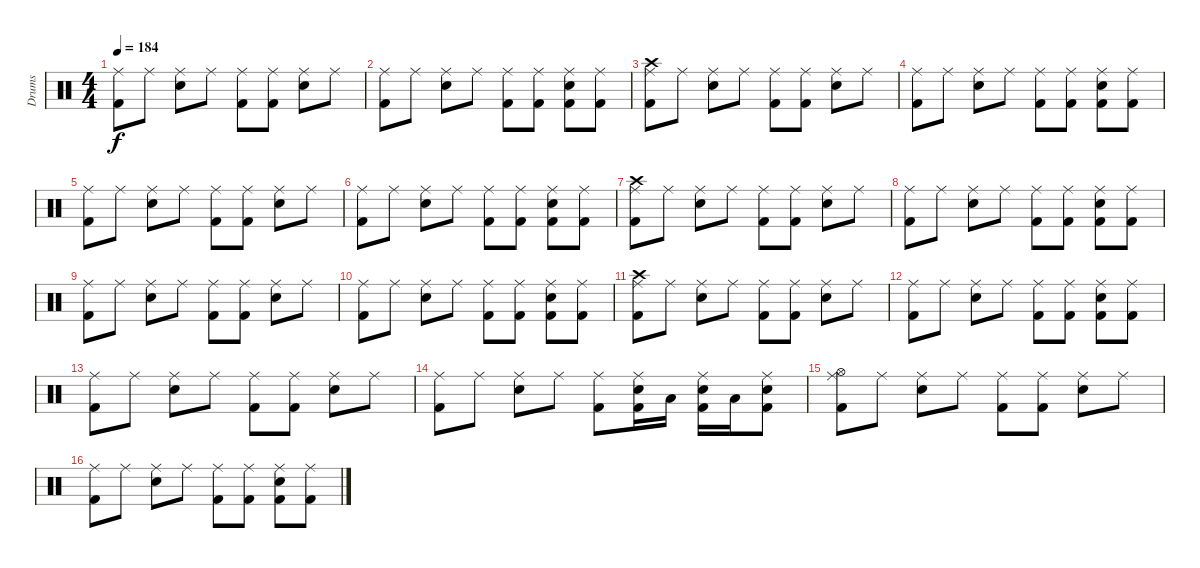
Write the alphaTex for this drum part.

\track ("Drums" "Drums") {instrument percussion}
\staff {score}
\articulation defaults
\ts (4 4)
\tempo 184
\clef neutral
\ks c
("Ride (middle)" "Kick (hit) 2").8{dy f} "Ride (middle)".8 ("Ride (middle)" "Electric Snare (hit)").8 "Ride (middle)".8 ("Ride (middle)" "Kick (hit) 2").8 ("Ride (middle)" "Kick (hit) 2").8 ("Ride (middle)" "Electric Snare (hit)").8 "Ride (middle)".8 |
("Ride (middle)" "Kick (hit) 2").8 "Ride (middle)".8 ("Ride (middle)" "Electric Snare (hit)").8 "Ride (middle)".8 ("Ride (middle)" "Kick (hit) 2").8 ("Ride (middle)" "Kick (hit) 2").8 ("Ride (middle)" "Electric Snare (hit)" "Kick (hit) 2").8 ("Ride (middle)" "Kick (hit) 2").8 |
("Ride (middle)" "Crash high (hit)" "Kick (hit) 2").8 "Ride (middle)".8 ("Ride (middle)" "Electric Snare (hit)").8 "Ride (middle)".8 ("Ride (middle)" "Kick (hit) 2").8 ("Ride (middle)" "Kick (hit) 2").8 ("Ride (middle)" "Electric Snare (hit)").8 "Ride (middle)".8 |
("Ride (middle)" "Kick (hit) 2").8 "Ride (middle)".8 ("Ride (middle)" "Electric Snare (hit)").8 "Ride (middle)".8 ("Ride (middle)" "Kick (hit) 2").8 ("Ride (middle)" "Kick (hit) 2").8 ("Ride (middle)" "Electric Snare (hit)" "Kick (hit) 2").8 ("Ride (middle)" "Kick (hit) 2").8 |
("Ride (middle)" "Kick (hit) 2").8 "Ride (middle)".8 ("Ride (middle)" "Electric Snare (hit)").8 "Ride (middle)".8 ("Ride (middle)" "Kick (hit) 2").8 ("Ride (middle)" "Kick (hit) 2").8 ("Ride (middle)" "Electric Snare (hit)").8 "Ride (middle)".8 |
("Ride (middle)" "Kick (hit) 2").8 "Ride (middle)".8 ("Ride (middle)" "Electric Snare (hit)").8 "Ride (middle)".8 ("Ride (middle)" "Kick (hit) 2").8 ("Ride (middle)" "Kick (hit) 2").8 ("Ride (middle)" "Electric Snare (hit)" "Kick (hit) 2").8 ("Ride (middle)" "Kick (hit) 2").8 |
("Ride (middle)" "Crash high (hit)" "Kick (hit) 2").8 "Ride (middle)".8 ("Ride (middle)" "Electric Snare (hit)").8 "Ride (middle)".8 ("Ride (middle)" "Kick (hit) 2").8 ("Ride (middle)" "Kick (hit) 2").8 ("Ride (middle)" "Electric Snare (hit)").8 "Ride (middle)".8 |
("Ride (middle)" "Kick (hit) 2").8 "Ride (middle)".8 ("Ride (middle)" "Electric Snare (hit)").8 "Ride (middle)".8 ("Ride (middle)" "Kick (hit) 2").8 ("Ride (middle)" "Kick (hit) 2").8 ("Ride (middle)" "Electric Snare (hit)" "Kick (hit) 2").8 ("Ride (middle)" "Kick (hit) 2").8 |
("Ride (middle)" "Kick (hit) 2").8 "Ride (middle)".8 ("Ride (middle)" "Electric Snare (hit)").8 "Ride (middle)".8 ("Ride (middle)" "Kick (hit) 2").8 ("Ride (middle)" "Kick (hit) 2").8 ("Ride (middle)" "Electric Snare (hit)").8 "Ride (middle)".8 |
("Ride (middle)" "Kick (hit) 2").8 "Ride (middle)".8 ("Ride (middle)" "Electric Snare (hit)").8 "Ride (middle)".8 ("Ride (middle)" "Kick (hit) 2").8 ("Ride (middle)" "Kick (hit) 2").8 ("Ride (middle)" "Electric Snare (hit)" "Kick (hit) 2").8 ("Ride (middle)" "Kick (hit) 2").8 |
("Ride (middle)" "Crash high (hit)" "Kick (hit) 2").8 "Ride (middle)".8 ("Ride (middle)" "Electric Snare (hit)").8 "Ride (middle)".8 ("Ride (middle)" "Kick (hit) 2").8 ("Ride (middle)" "Kick (hit) 2").8 ("Ride (middle)" "Electric Snare (hit)").8 "Ride (middle)".8 |
("Ride (middle)" "Kick (hit) 2").8 "Ride (middle)".8 ("Ride (middle)" "Electric Snare (hit)").8 "Ride (middle)".8 ("Ride (middle)" "Kick (hit) 2").8 ("Ride (middle)" "Kick (hit) 2").8 ("Ride (middle)" "Electric Snare (hit)" "Kick (hit) 2").8 ("Ride (middle)" "Kick (hit) 2").8 |
("Ride (middle)" "Kick (hit) 2").8 "Ride (middle)".8 ("Ride (middle)" "Electric Snare (hit)").8 "Ride (middle)".8 ("Ride (middle)" "Kick (hit) 2").8 ("Ride (middle)" "Kick (hit) 2").8 ("Ride (middle)" "Electric Snare (hit)").8 "Ride (middle)".8 |
("Ride (middle)" "Kick (hit) 2").8 "Ride (middle)".8 ("Ride (middle)" "Electric Snare (hit)").8 "Ride (middle)".8 ("Ride (middle)" "Kick (hit) 2").8 ("Ride (middle)" "Electric Snare (hit)" "Kick (hit) 2").16 "Low Tom (hit)".16 ("Ride (middle)" "Electric Snare (hit)" "Kick (hit) 2").16 "Low Tom (hit)".16 ("Ride (middle)" "Electric Snare (hit)" "Kick (hit) 2").8 |
("Ride (middle)" "Hi-Hat (open)" "Kick (hit) 2").8 "Ride (middle)".8 ("Ride (middle)" "Electric Snare (hit)").8 "Ride (middle)".8 ("Ride (middle)" "Kick (hit) 2").8 ("Ride (middle)" "Kick (hit) 2").8 ("Ride (middle)" "Electric Snare (hit)").8 "Ride (middle)".8 |
("Ride (middle)" "Kick (hit) 2").8 "Ride (middle)".8 ("Ride (middle)" "Electric Snare (hit)").8 "Ride (middle)".8 ("Ride (middle)" "Kick (hit) 2").8 ("Ride (middle)" "Kick (hit) 2").8 ("Ride (middle)" "Electric Snare (hit)" "Kick (hit) 2").8 ("Ride (middle)" "Kick (hit) 2").8
